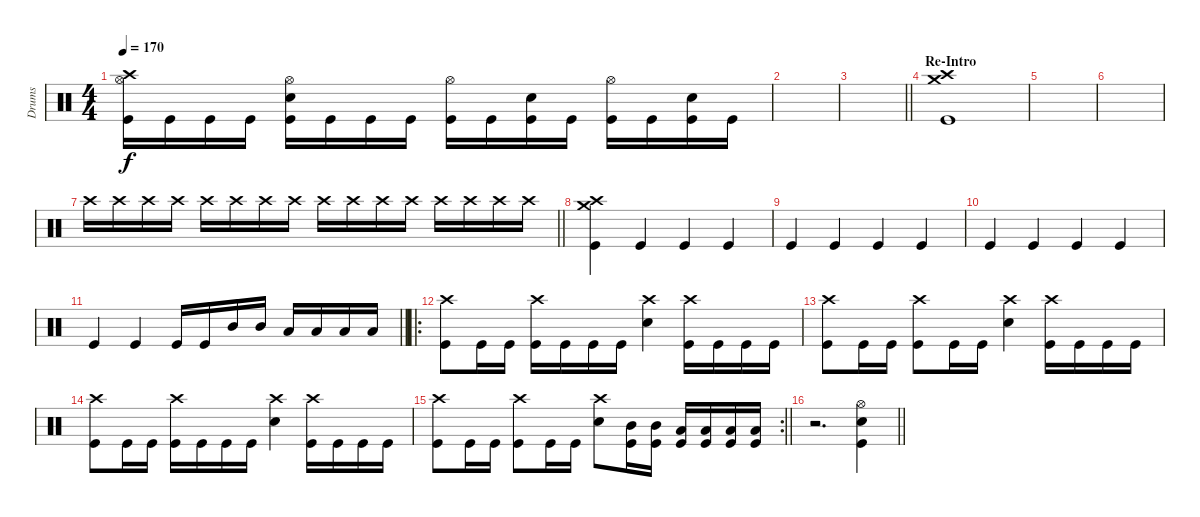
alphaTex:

\track ("Drums" "Drums") {instrument percussion}
\staff {score}
\articulation defaults
\ts (4 4)
\tempo 170
\clef neutral
\ks c
("Hi-Hat (open)" "Crash high (hit)" "Kick (hit)").16{dy f} "Kick (hit)".16 "Kick (hit)".16 "Kick (hit)".16 ("Hi-Hat (open)" "Snare (hit) 2" "Kick (hit)").16 "Kick (hit)".16 "Kick (hit)".16 "Kick (hit)".16 ("Hi-Hat (open)" "Kick (hit)").16 "Kick (hit)".16 ("Snare (hit) 2" "Kick (hit)").16 "Kick (hit)".16 ("Hi-Hat (open)" "Kick (hit)").16 "Kick (hit)".16 ("Snare (hit) 2" "Kick (hit)").16 "Kick (hit)".16 |
|
\barLineRight lightlight
|
\section ("" "Re-Intro")
("Crash high (hit)" "Crash medium (hit)" "Kick (hit)").1 |
|
|
\barLineRight lightlight "Crash high (hit)".16{volume 16} "Crash high (hit)".16 "Crash high (hit)".16 "Crash high (hit)".16 "Crash high (hit)".16 "Crash high (hit)".16 "Crash high (hit)".16 "Crash high (hit)".16 "Crash high (hit)".16 "Crash high (hit)".16 "Crash high (hit)".16 "Crash high (hit)".16 "Crash high (hit)".16 "Crash high (hit)".16 "Crash high (hit)".16 "Crash high (hit)".16
|
("Crash high (hit)" "Crash medium (hit)" "Kick (hit)").4 "Kick (hit)".4 "Kick (hit)".4 "Kick (hit)".4 |
"Kick (hit)".4 "Kick (hit)".4 "Kick (hit)".4 "Kick (hit)".4 |
"Kick (hit)".4 "Kick (hit)".4 "Kick (hit)".4 "Kick (hit)".4 |
\barLineRight lightlight "Kick (hit)".4 "Kick (hit)".4 "Kick (hit)".16 "Kick (hit)".16 "Mid Tom (hit)".16 "Mid Tom (hit)".16 "Low Tom (hit)".16 "Low Tom (hit)".16 "Low Floor Tom (hit)".16 "Low Floor Tom (hit)".16
|
\ro
("Crash high (hit)" "Kick (hit)").8 "Kick (hit)".16 "Kick (hit)".16 ("Crash high (hit)" "Kick (hit)").16 "Kick (hit)".16 "Kick (hit)".16 "Kick (hit)".16 ("Crash high (hit)" "Snare (hit) 2").4 ("Crash high (hit)" "Kick (hit)").16 "Kick (hit)".16 "Kick (hit)".16 "Kick (hit)".16 |
("Crash high (hit)" "Kick (hit)").8 "Kick (hit)".16 "Kick (hit)".16 ("Crash high (hit)" "Kick (hit)").8 "Kick (hit)".16 "Kick (hit)".16 ("Crash high (hit)" "Snare (hit) 2").4 ("Crash high (hit)" "Kick (hit)").16 "Kick (hit)".16 "Kick (hit)".16 "Kick (hit)".16 |
("Crash high (hit)" "Kick (hit)").8 "Kick (hit)".16 "Kick (hit)".16 ("Crash high (hit)" "Kick (hit)").16 "Kick (hit)".16 "Kick (hit)".16 "Kick (hit)".16 ("Crash high (hit)" "Snare (hit) 2").4 ("Crash high (hit)" "Kick (hit)").16 "Kick (hit)".16 "Kick (hit)".16 "Kick (hit)".16 |
\rc 2
\barLineRight lightlight
("Crash high (hit)" "Kick (hit)").8 "Kick (hit)".16 "Kick (hit)".16 ("Crash high (hit)" "Kick (hit)").8 "Kick (hit)".16 "Kick (hit)".16 ("Crash high (hit)" "Snare (hit) 2").8 ("Mid Tom (hit)" "Kick (hit)").16 ("Mid Tom (hit)" "Kick (hit)").16 ("Low Tom (hit)" "Kick (hit)").16 ("Low Tom (hit)" "Kick (hit)").16 ("Low Floor Tom (hit)" "Kick (hit)").16 ("Low Floor Tom (hit)" "Kick (hit)").16 |
\barLineRight lightlight
r.2{d} ("Hi-Hat (open)" "Snare (hit) 2" "Kick (hit)").4
